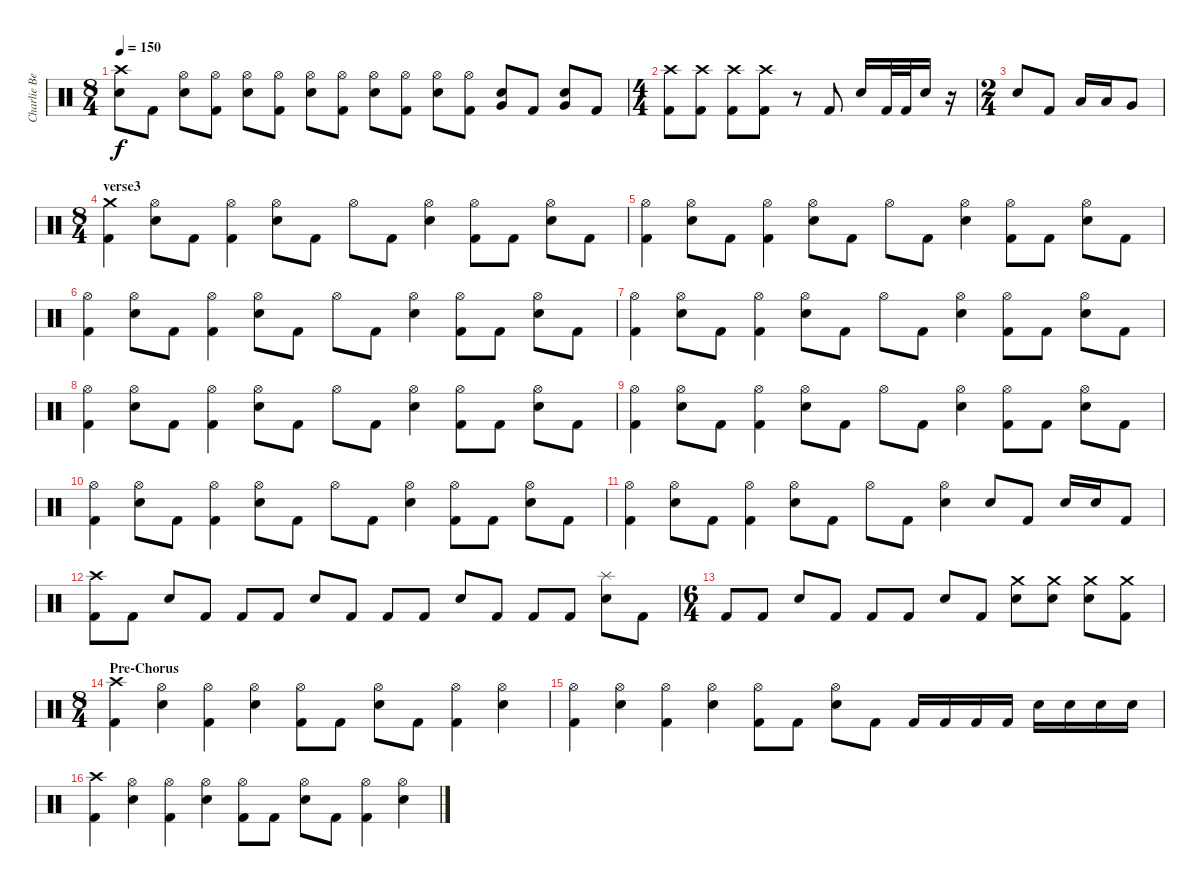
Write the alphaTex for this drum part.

\track ("Charlie Benante" "Charlie Be") {instrument percussion}
\staff {score}
\articulation defaults
\ts (8 4)
\tempo 150
\clef neutral
\ks c
("Crash high (hit)" "Electric Snare (hit)").8{dy f} "Kick (hit) 2".8 ("Hi-Hat (open)" "Electric Snare (hit)").8 ("Hi-Hat (open)" "Kick (hit) 2").8 ("Hi-Hat (open)" "Electric Snare (hit)").8 ("Hi-Hat (open)" "Kick (hit) 2").8 ("Hi-Hat (open)" "Electric Snare (hit)").8 ("Hi-Hat (open)" "Kick (hit) 2").8 ("Hi-Hat (open)" "Electric Snare (hit)").8 ("Hi-Hat (open)" "Kick (hit) 2").8 ("Hi-Hat (open)" "Electric Snare (hit)").8 ("Hi-Hat (open)" "Kick (hit) 2").8 ("Very Low Tom (hit)" "Electric Snare (hit)").8 "Kick (hit) 2".8 ("Very Low Tom (hit)" "Electric Snare (hit)").8 "Kick (hit) 2".8 |
\ts (4 4)
("Crash high (hit)" "Kick (hit) 2").8 ("Crash high (hit)" "Kick (hit) 2").8 ("Crash high (hit)" "Kick (hit) 2").8 ("Crash high (hit)" "Kick (hit) 2").8 r.8 "Kick (hit) 2".8 "Electric Snare (hit)".16 "Kick (hit) 2".32 "Kick (hit) 2".32 "Electric Snare (hit)".16 r.16 |
\ts (2 4)
"Electric Snare (hit)".8 "Kick (hit) 2".8 "Low Tom (hit)".16 "Low Tom (hit)".16 "Very Low Tom (hit)".8 |
\ts (8 4)
\section ("" "verse3")
("Crash medium (hit)" "Kick (hit) 2").4 ("Hi-Hat (open)" "Electric Snare (hit)").8 "Kick (hit) 2".8 ("Hi-Hat (open)" "Kick (hit) 2").4 ("Hi-Hat (open)" "Electric Snare (hit)").8 "Kick (hit) 2".8 "Hi-Hat (open)".8 "Kick (hit) 2".8 ("Hi-Hat (open)" "Electric Snare (hit)").4 ("Hi-Hat (open)" "Kick (hit) 2").8 "Kick (hit) 2".8 ("Hi-Hat (open)" "Electric Snare (hit)").8 "Kick (hit) 2".8 |
("Hi-Hat (open)" "Kick (hit) 2").4 ("Hi-Hat (open)" "Electric Snare (hit)").8 "Kick (hit) 2".8 ("Hi-Hat (open)" "Kick (hit) 2").4 ("Hi-Hat (open)" "Electric Snare (hit)").8 "Kick (hit) 2".8 "Hi-Hat (open)".8 "Kick (hit) 2".8 ("Hi-Hat (open)" "Electric Snare (hit)").4 ("Hi-Hat (open)" "Kick (hit) 2").8 "Kick (hit) 2".8 ("Hi-Hat (open)" "Electric Snare (hit)").8 "Kick (hit) 2".8 |
("Hi-Hat (open)" "Kick (hit) 2").4 ("Hi-Hat (open)" "Electric Snare (hit)").8 "Kick (hit) 2".8 ("Hi-Hat (open)" "Kick (hit) 2").4 ("Hi-Hat (open)" "Electric Snare (hit)").8 "Kick (hit) 2".8 "Hi-Hat (open)".8 "Kick (hit) 2".8 ("Hi-Hat (open)" "Electric Snare (hit)").4 ("Hi-Hat (open)" "Kick (hit) 2").8 "Kick (hit) 2".8 ("Hi-Hat (open)" "Electric Snare (hit)").8 "Kick (hit) 2".8 |
("Hi-Hat (open)" "Kick (hit) 2").4 ("Hi-Hat (open)" "Electric Snare (hit)").8 "Kick (hit) 2".8 ("Hi-Hat (open)" "Kick (hit) 2").4 ("Hi-Hat (open)" "Electric Snare (hit)").8 "Kick (hit) 2".8 "Hi-Hat (open)".8 "Kick (hit) 2".8 ("Hi-Hat (open)" "Electric Snare (hit)").4 ("Hi-Hat (open)" "Kick (hit) 2").8 "Kick (hit) 2".8 ("Hi-Hat (open)" "Electric Snare (hit)").8 "Kick (hit) 2".8 |
("Hi-Hat (open)" "Kick (hit) 2").4 ("Hi-Hat (open)" "Electric Snare (hit)").8 "Kick (hit) 2".8 ("Hi-Hat (open)" "Kick (hit) 2").4 ("Hi-Hat (open)" "Electric Snare (hit)").8 "Kick (hit) 2".8 "Hi-Hat (open)".8 "Kick (hit) 2".8 ("Hi-Hat (open)" "Electric Snare (hit)").4 ("Hi-Hat (open)" "Kick (hit) 2").8 "Kick (hit) 2".8 ("Hi-Hat (open)" "Electric Snare (hit)").8 "Kick (hit) 2".8 |
("Hi-Hat (open)" "Kick (hit) 2").4 ("Hi-Hat (open)" "Electric Snare (hit)").8 "Kick (hit) 2".8 ("Hi-Hat (open)" "Kick (hit) 2").4 ("Hi-Hat (open)" "Electric Snare (hit)").8 "Kick (hit) 2".8 "Hi-Hat (open)".8 "Kick (hit) 2".8 ("Hi-Hat (open)" "Electric Snare (hit)").4 ("Hi-Hat (open)" "Kick (hit) 2").8 "Kick (hit) 2".8 ("Hi-Hat (open)" "Electric Snare (hit)").8 "Kick (hit) 2".8 |
("Hi-Hat (open)" "Kick (hit) 2").4 ("Hi-Hat (open)" "Electric Snare (hit)").8 "Kick (hit) 2".8 ("Hi-Hat (open)" "Kick (hit) 2").4 ("Hi-Hat (open)" "Electric Snare (hit)").8 "Kick (hit) 2".8 "Hi-Hat (open)".8 "Kick (hit) 2".8 ("Hi-Hat (open)" "Electric Snare (hit)").4 ("Hi-Hat (open)" "Kick (hit) 2").8 "Kick (hit) 2".8 ("Hi-Hat (open)" "Electric Snare (hit)").8 "Kick (hit) 2".8 |
("Hi-Hat (open)" "Kick (hit) 2").4 ("Hi-Hat (open)" "Electric Snare (hit)").8 "Kick (hit) 2".8 ("Hi-Hat (open)" "Kick (hit) 2").4 ("Hi-Hat (open)" "Electric Snare (hit)").8 "Kick (hit) 2".8 "Hi-Hat (open)".8 "Kick (hit) 2".8 ("Hi-Hat (open)" "Electric Snare (hit)").4 "Electric Snare (hit)".8 "Kick (hit) 2".8 "Electric Snare (hit)".16 "Electric Snare (hit)".16 "Kick (hit) 2".8 |
("Crash high (hit)" "Kick (hit) 2").8 "Kick (hit) 2".8 "Electric Snare (hit)".8 "Kick (hit) 2".8 "Kick (hit) 2".8 "Kick (hit) 2".8 "Electric Snare (hit)".8 "Kick (hit) 2".8 "Kick (hit) 2".8 "Kick (hit) 2".8 "Electric Snare (hit)".8 "Kick (hit) 2".8 "Kick (hit) 2".8 "Kick (hit) 2".8 ("Splash (hit)" "Electric Snare (hit)").8 "Kick (hit) 2".8 |
\ts (6 4)
"Kick (hit) 2".8 "Kick (hit) 2".8 "Electric Snare (hit)".8 "Kick (hit) 2".8 "Kick (hit) 2".8 "Kick (hit) 2".8 "Electric Snare (hit)".8 "Kick (hit) 2".8 ("Crash medium (hit)" "Electric Snare (hit)").8 ("Crash medium (hit)" "Electric Snare (hit)").8 ("Crash medium (hit)" "Electric Snare (hit)").8 ("Crash medium (hit)" "Kick (hit) 2").8 |
\ts (8 4)
\section ("" "Pre-Chorus")
("Crash high (hit)" "Kick (hit) 2").4 ("Hi-Hat (open)" "Electric Snare (hit)").4 ("Hi-Hat (open)" "Kick (hit) 2").4 ("Hi-Hat (open)" "Electric Snare (hit)").4 ("Hi-Hat (open)" "Kick (hit) 2").8 "Kick (hit) 2".8 ("Hi-Hat (open)" "Electric Snare (hit)").8 "Kick (hit) 2".8 ("Hi-Hat (open)" "Kick (hit) 2").4 ("Hi-Hat (open)" "Electric Snare (hit)").4 |
("Hi-Hat (open)" "Kick (hit) 2").4 ("Hi-Hat (open)" "Electric Snare (hit)").4 ("Hi-Hat (open)" "Kick (hit) 2").4 ("Hi-Hat (open)" "Electric Snare (hit)").4 ("Hi-Hat (open)" "Kick (hit) 2").8 "Kick (hit) 2".8 ("Hi-Hat (open)" "Electric Snare (hit)").8 "Kick (hit) 2".8 "Kick (hit) 2".16 "Kick (hit) 2".16 "Kick (hit) 2".16 "Kick (hit) 2".16 "Electric Snare (hit)".16 "Electric Snare (hit)".16 "Electric Snare (hit)".16 "Electric Snare (hit)".16 |
("Crash high (hit)" "Kick (hit) 2").4 ("Hi-Hat (open)" "Electric Snare (hit)").4 ("Hi-Hat (open)" "Kick (hit) 2").4 ("Hi-Hat (open)" "Electric Snare (hit)").4 ("Hi-Hat (open)" "Kick (hit) 2").8 "Kick (hit) 2".8 ("Hi-Hat (open)" "Electric Snare (hit)").8 "Kick (hit) 2".8 ("Hi-Hat (open)" "Kick (hit) 2").4 ("Hi-Hat (open)" "Electric Snare (hit)").4
